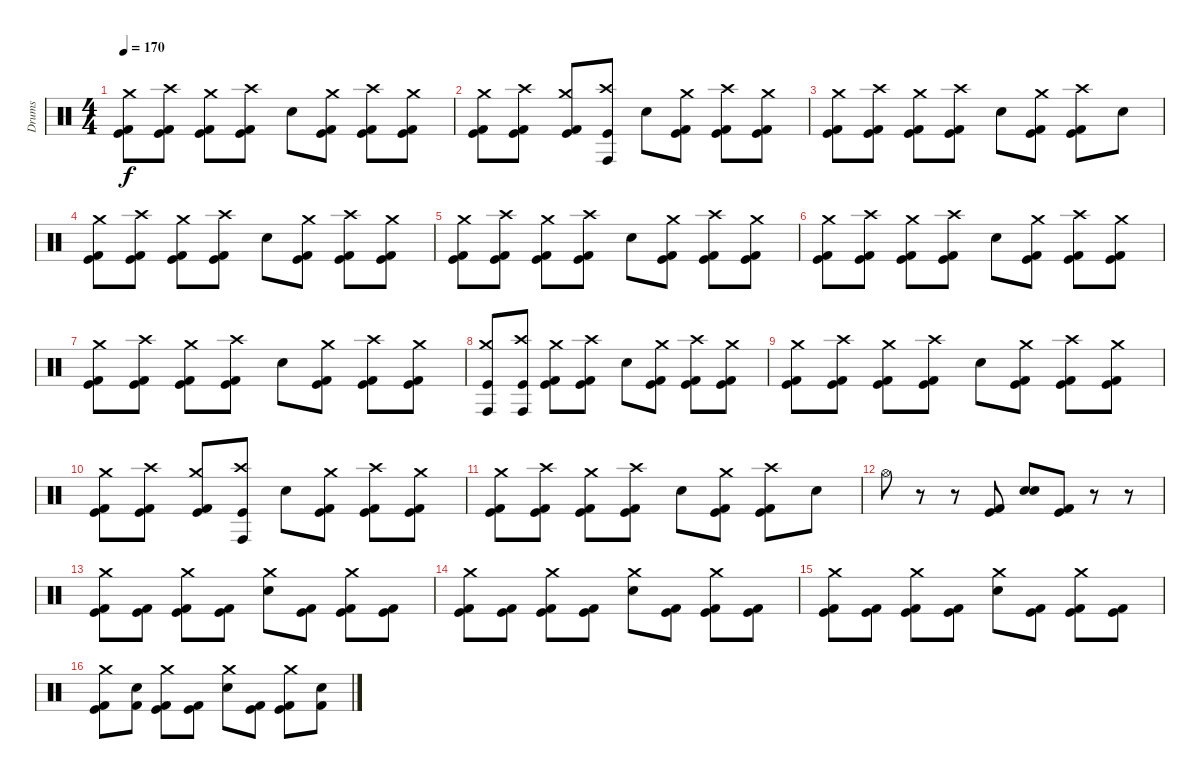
\track ("Drums" "Drums") {instrument percussion}
\staff {score}
\articulation defaults
\ts (4 4)
\tempo 170
\clef neutral
\ks c
("Kick (hit) 2" "Kick (hit)" "Crash medium (hit)").8{dy f} ("Kick (hit) 2" "Kick (hit)" "Crash high (hit)").8 ("Kick (hit) 2" "Kick (hit)" "Crash medium (hit)").8 ("Kick (hit) 2" "Kick (hit)" "Crash high (hit)").8 "Snare (hit) 2".8 ("Kick (hit) 2" "Kick (hit)" "Crash medium (hit)").8 ("Kick (hit) 2" "Kick (hit)" "Crash high (hit)").8 ("Kick (hit) 2" "Kick (hit)" "Crash medium (hit)").8 |
("Kick (hit) 2" "Kick (hit)" "Crash medium (hit)").8 ("Kick (hit) 2" "Kick (hit)" "Crash high (hit)").8 ("Kick (hit) 2" "Kick (hit)" "Crash medium (hit)").8 ("Conga high (hit)" "Kick (hit)" "Crash high (hit)").8 "Snare (hit) 2".8 ("Kick (hit) 2" "Kick (hit)" "Crash medium (hit)").8 ("Kick (hit) 2" "Kick (hit)" "Crash high (hit)").8 ("Kick (hit) 2" "Kick (hit)" "Crash medium (hit)").8 |
("Kick (hit) 2" "Kick (hit)" "Crash medium (hit)").8 ("Kick (hit) 2" "Kick (hit)" "Crash high (hit)").8 ("Kick (hit) 2" "Kick (hit)" "Crash medium (hit)").8 ("Kick (hit) 2" "Kick (hit)" "Crash high (hit)").8 "Snare (hit) 2".8 ("Kick (hit) 2" "Kick (hit)" "Crash medium (hit)").8 ("Kick (hit) 2" "Kick (hit)" "Crash high (hit)").8 "Snare (hit) 2".8 |
("Kick (hit) 2" "Kick (hit)" "Crash medium (hit)").8 ("Kick (hit) 2" "Kick (hit)" "Crash high (hit)").8 ("Kick (hit) 2" "Kick (hit)" "Crash medium (hit)").8 ("Kick (hit) 2" "Kick (hit)" "Crash high (hit)").8 "Snare (hit) 2".8 ("Kick (hit) 2" "Kick (hit)" "Crash medium (hit)").8 ("Kick (hit) 2" "Kick (hit)" "Crash high (hit)").8 ("Kick (hit) 2" "Kick (hit)" "Crash medium (hit)").8 |
("Kick (hit) 2" "Kick (hit)" "Crash medium (hit)").8 ("Kick (hit) 2" "Kick (hit)" "Crash high (hit)").8 ("Kick (hit) 2" "Kick (hit)" "Crash medium (hit)").8 ("Kick (hit) 2" "Kick (hit)" "Crash high (hit)").8 "Snare (hit) 2".8 ("Kick (hit) 2" "Kick (hit)" "Crash medium (hit)").8 ("Kick (hit) 2" "Kick (hit)" "Crash high (hit)").8 ("Kick (hit) 2" "Kick (hit)" "Crash medium (hit)").8 |
("Kick (hit) 2" "Kick (hit)" "Crash medium (hit)").8 ("Kick (hit) 2" "Kick (hit)" "Crash high (hit)").8 ("Kick (hit) 2" "Kick (hit)" "Crash medium (hit)").8 ("Kick (hit) 2" "Kick (hit)" "Crash high (hit)").8 "Snare (hit) 2".8 ("Kick (hit) 2" "Kick (hit)" "Crash medium (hit)").8 ("Kick (hit) 2" "Kick (hit)" "Crash high (hit)").8 ("Kick (hit) 2" "Kick (hit)" "Crash medium (hit)").8 |
("Kick (hit) 2" "Kick (hit)" "Crash medium (hit)").8 ("Kick (hit) 2" "Kick (hit)" "Crash high (hit)").8 ("Kick (hit) 2" "Kick (hit)" "Crash medium (hit)").8 ("Kick (hit) 2" "Kick (hit)" "Crash high (hit)").8 "Snare (hit) 2".8 ("Kick (hit) 2" "Kick (hit)" "Crash medium (hit)").8 ("Kick (hit) 2" "Kick (hit)" "Crash high (hit)").8 ("Kick (hit) 2" "Kick (hit)" "Crash medium (hit)").8 |
("Conga high (hit)" "Kick (hit)" "Crash medium (hit)").8 ("Conga high (hit)" "Kick (hit)" "Crash high (hit)").8 ("Kick (hit) 2" "Kick (hit)" "Crash medium (hit)").8 ("Kick (hit) 2" "Kick (hit)" "Crash high (hit)").8 "Snare (hit) 2".8 ("Kick (hit) 2" "Kick (hit)" "Crash medium (hit)").8 ("Kick (hit) 2" "Kick (hit)" "Crash high (hit)").8 ("Kick (hit) 2" "Kick (hit)" "Crash medium (hit)").8 |
("Kick (hit) 2" "Kick (hit)" "Crash medium (hit)").8 ("Kick (hit) 2" "Kick (hit)" "Crash high (hit)").8 ("Kick (hit) 2" "Kick (hit)" "Crash medium (hit)").8 ("Kick (hit) 2" "Kick (hit)" "Crash high (hit)").8 "Snare (hit) 2".8 ("Kick (hit) 2" "Kick (hit)" "Crash medium (hit)").8 ("Kick (hit) 2" "Kick (hit)" "Crash high (hit)").8 ("Kick (hit) 2" "Kick (hit)" "Crash medium (hit)").8 |
("Kick (hit) 2" "Kick (hit)" "Crash medium (hit)").8 ("Kick (hit) 2" "Kick (hit)" "Crash high (hit)").8 ("Kick (hit) 2" "Kick (hit)" "Crash medium (hit)").8 ("Conga high (hit)" "Kick (hit)" "Crash high (hit)").8 "Snare (hit) 2".8 ("Kick (hit) 2" "Kick (hit)" "Crash medium (hit)").8 ("Kick (hit) 2" "Kick (hit)" "Crash high (hit)").8 ("Kick (hit) 2" "Kick (hit)" "Crash medium (hit)").8 |
("Kick (hit) 2" "Kick (hit)" "Crash medium (hit)").8 ("Kick (hit) 2" "Kick (hit)" "Crash high (hit)").8 ("Kick (hit) 2" "Kick (hit)" "Crash medium (hit)").8 ("Kick (hit) 2" "Kick (hit)" "Crash high (hit)").8 "Snare (hit) 2".8 ("Kick (hit) 2" "Kick (hit)" "Crash medium (hit)").8 ("Kick (hit) 2" "Kick (hit)" "Crash high (hit)").8 "Snare (hit) 2".8 |
"Hi-Hat (open)".8 r.8 r.8 ("Kick (hit) 2" "Kick (hit)").8 ("Electric Snare (hit)" "Snare (hit) 2").8 ("Kick (hit) 2" "Kick (hit)").8 r.8 r.8 |
("Kick (hit) 2" "Kick (hit)" "Crash medium (hit)").8 ("Kick (hit) 2" "Kick (hit)").8 ("Kick (hit) 2" "Kick (hit)" "Crash medium (hit)").8 ("Kick (hit) 2" "Kick (hit)").8 ("Snare (hit) 2" "Crash medium (hit)").8 ("Kick (hit) 2" "Kick (hit)").8 ("Kick (hit) 2" "Kick (hit)" "Crash medium (hit)").8 ("Kick (hit) 2" "Kick (hit)").8 |
("Kick (hit) 2" "Kick (hit)" "Crash medium (hit)").8 ("Kick (hit) 2" "Kick (hit)").8 ("Kick (hit) 2" "Kick (hit)" "Crash medium (hit)").8 ("Kick (hit) 2" "Kick (hit)").8 ("Snare (hit) 2" "Crash medium (hit)").8 ("Kick (hit) 2" "Kick (hit)").8 ("Kick (hit) 2" "Kick (hit)" "Crash medium (hit)").8 ("Kick (hit) 2" "Kick (hit)").8 |
("Kick (hit) 2" "Kick (hit)" "Crash medium (hit)").8 ("Kick (hit) 2" "Kick (hit)").8 ("Kick (hit) 2" "Kick (hit)" "Crash medium (hit)").8 ("Kick (hit) 2" "Kick (hit)").8 ("Snare (hit) 2" "Crash medium (hit)").8 ("Kick (hit) 2" "Kick (hit)").8 ("Kick (hit) 2" "Kick (hit)" "Crash medium (hit)").8 ("Kick (hit) 2" "Kick (hit)").8 |
("Kick (hit) 2" "Kick (hit)" "Crash medium (hit)").8 ("Kick (hit) 2" "Snare (hit) 2").8 ("Kick (hit) 2" "Crash medium (hit)" "Kick (hit)").8 ("Kick (hit) 2" "Kick (hit)").8 ("Snare (hit) 2" "Crash medium (hit)").8 ("Kick (hit) 2" "Kick (hit)").8 ("Kick (hit) 2" "Kick (hit)" "Crash medium (hit)").8 ("Kick (hit) 2" "Snare (hit) 2").8
